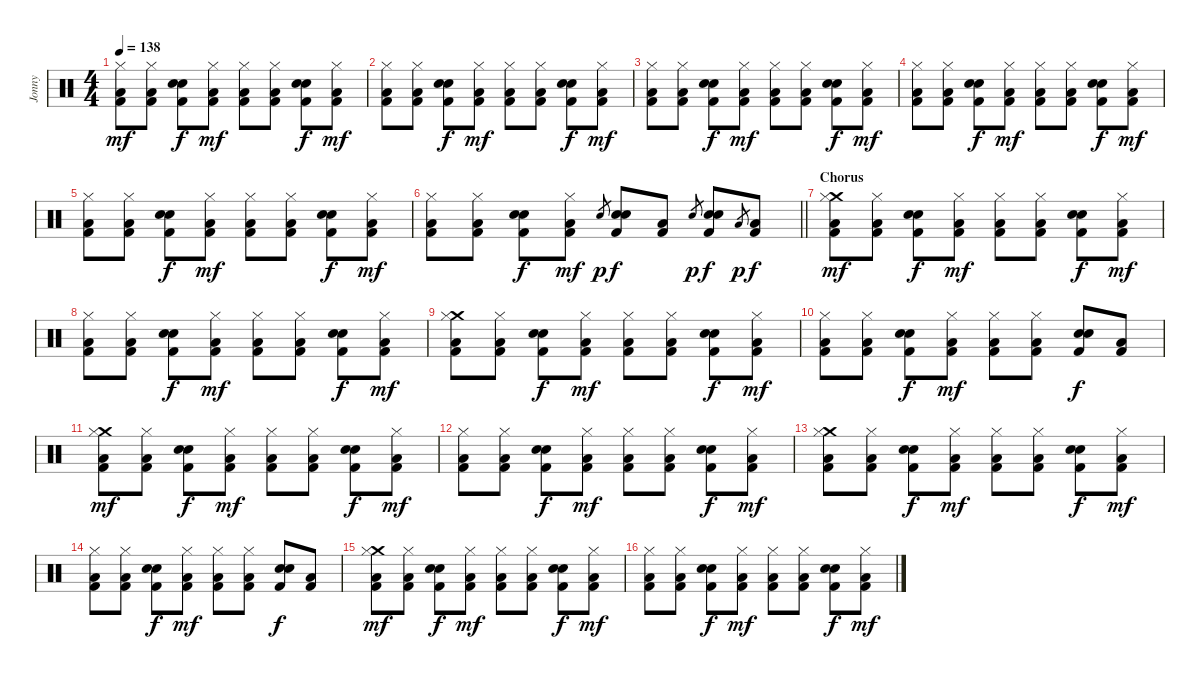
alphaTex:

\track ("Jonny" "Jonny") {instrument percussion}
\staff {score}
\articulation defaults
\ts (4 4)
\tempo 138
\clef neutral
\ks c
("Hi-Hat (closed)" "Low Floor Tom (hit)" "Kick (hit) 2").8{dy mf} ("Hi-Hat (closed)" "Low Floor Tom (hit)" "Kick (hit) 2").8 ("Electric Snare (hit)" "Electric Snare (hit)" "Kick (hit) 2").8{dy f} ("Hi-Hat (closed)" "Low Floor Tom (hit)" "Kick (hit) 2").8{dy mf} ("Hi-Hat (closed)" "Low Floor Tom (hit)" "Kick (hit) 2").8 ("Hi-Hat (closed)" "Low Floor Tom (hit)" "Kick (hit) 2").8 ("Electric Snare (hit)" "Electric Snare (hit)" "Kick (hit) 2").8{dy f} ("Hi-Hat (closed)" "Low Floor Tom (hit)" "Kick (hit) 2").8{dy mf} |
("Hi-Hat (closed)" "Low Floor Tom (hit)" "Kick (hit) 2").8 ("Hi-Hat (closed)" "Low Floor Tom (hit)" "Kick (hit) 2").8 ("Electric Snare (hit)" "Electric Snare (hit)" "Kick (hit) 2").8{dy f} ("Hi-Hat (closed)" "Low Floor Tom (hit)" "Kick (hit) 2").8{dy mf} ("Hi-Hat (closed)" "Low Floor Tom (hit)" "Kick (hit) 2").8 ("Hi-Hat (closed)" "Low Floor Tom (hit)" "Kick (hit) 2").8 ("Electric Snare (hit)" "Electric Snare (hit)" "Kick (hit) 2").8{dy f} ("Hi-Hat (closed)" "Low Floor Tom (hit)" "Kick (hit) 2").8{dy mf} |
("Hi-Hat (closed)" "Low Floor Tom (hit)" "Kick (hit) 2").8 ("Hi-Hat (closed)" "Low Floor Tom (hit)" "Kick (hit) 2").8 ("Electric Snare (hit)" "Electric Snare (hit)" "Kick (hit) 2").8{dy f} ("Hi-Hat (closed)" "Low Floor Tom (hit)" "Kick (hit) 2").8{dy mf} ("Hi-Hat (closed)" "Low Floor Tom (hit)" "Kick (hit) 2").8 ("Hi-Hat (closed)" "Low Floor Tom (hit)" "Kick (hit) 2").8 ("Electric Snare (hit)" "Electric Snare (hit)" "Kick (hit) 2").8{dy f} ("Hi-Hat (closed)" "Low Floor Tom (hit)" "Kick (hit) 2").8{dy mf} |
("Hi-Hat (closed)" "Low Floor Tom (hit)" "Kick (hit) 2").8 ("Hi-Hat (closed)" "Low Floor Tom (hit)" "Kick (hit) 2").8 ("Electric Snare (hit)" "Electric Snare (hit)" "Kick (hit) 2").8{dy f} ("Hi-Hat (closed)" "Low Floor Tom (hit)" "Kick (hit) 2").8{dy mf} ("Hi-Hat (closed)" "Low Floor Tom (hit)" "Kick (hit) 2").8 ("Hi-Hat (closed)" "Low Floor Tom (hit)" "Kick (hit) 2").8 ("Electric Snare (hit)" "Electric Snare (hit)" "Kick (hit) 2").8{dy f} ("Hi-Hat (closed)" "Low Floor Tom (hit)" "Kick (hit) 2").8{dy mf} |
("Hi-Hat (closed)" "Low Floor Tom (hit)" "Kick (hit) 2").8 ("Hi-Hat (closed)" "Low Floor Tom (hit)" "Kick (hit) 2").8 ("Electric Snare (hit)" "Electric Snare (hit)" "Kick (hit) 2").8{dy f} ("Hi-Hat (closed)" "Low Floor Tom (hit)" "Kick (hit) 2").8{dy mf} ("Hi-Hat (closed)" "Low Floor Tom (hit)" "Kick (hit) 2").8 ("Hi-Hat (closed)" "Low Floor Tom (hit)" "Kick (hit) 2").8 ("Electric Snare (hit)" "Electric Snare (hit)" "Kick (hit) 2").8{dy f} ("Hi-Hat (closed)" "Low Floor Tom (hit)" "Kick (hit) 2").8{dy mf} |
\barLineRight lightlight
("Hi-Hat (closed)" "Low Floor Tom (hit)" "Kick (hit) 2").8 ("Hi-Hat (closed)" "Low Floor Tom (hit)" "Kick (hit) 2").8 ("Electric Snare (hit)" "Electric Snare (hit)" "Kick (hit) 2").8{dy f} ("Hi-Hat (closed)" "Low Floor Tom (hit)" "Kick (hit) 2").8{dy mf} "Electric Snare (hit)".8{gr dy p} ("Electric Snare (hit)" "Electric Snare (hit)" "Kick (hit) 2").8{dy f} ("Low Floor Tom (hit)" "Kick (hit) 2").8 "Electric Snare (hit)".8{gr dy p} ("Electric Snare (hit)" "Electric Snare (hit)" "Kick (hit) 2").8{dy f} "Low Floor Tom (hit)".8{gr dy p} ("Low Floor Tom (hit)" "Kick (hit) 2").8{dy f} |
\section ("" "Chorus")
("Crash medium (hit)" "Hi-Hat (closed)" "Low Floor Tom (hit)" "Kick (hit) 2").8{dy mf} ("Hi-Hat (closed)" "Low Floor Tom (hit)" "Kick (hit) 2").8 ("Electric Snare (hit)" "Electric Snare (hit)" "Kick (hit) 2").8{dy f} ("Hi-Hat (closed)" "Low Floor Tom (hit)" "Kick (hit) 2").8{dy mf} ("Hi-Hat (closed)" "Low Floor Tom (hit)" "Kick (hit) 2").8 ("Hi-Hat (closed)" "Low Floor Tom (hit)" "Kick (hit) 2").8 ("Electric Snare (hit)" "Electric Snare (hit)" "Kick (hit) 2").8{dy f} ("Hi-Hat (closed)" "Low Floor Tom (hit)" "Kick (hit) 2").8{dy mf} |
("Hi-Hat (closed)" "Low Floor Tom (hit)" "Kick (hit) 2").8 ("Hi-Hat (closed)" "Low Floor Tom (hit)" "Kick (hit) 2").8 ("Electric Snare (hit)" "Electric Snare (hit)" "Kick (hit) 2").8{dy f} ("Hi-Hat (closed)" "Low Floor Tom (hit)" "Kick (hit) 2").8{dy mf} ("Hi-Hat (closed)" "Low Floor Tom (hit)" "Kick (hit) 2").8 ("Hi-Hat (closed)" "Low Floor Tom (hit)" "Kick (hit) 2").8 ("Electric Snare (hit)" "Electric Snare (hit)" "Kick (hit) 2").8{dy f} ("Hi-Hat (closed)" "Low Floor Tom (hit)" "Kick (hit) 2").8{dy mf} |
("Crash medium (hit)" "Hi-Hat (closed)" "Low Floor Tom (hit)" "Kick (hit) 2").8 ("Hi-Hat (closed)" "Low Floor Tom (hit)" "Kick (hit) 2").8 ("Electric Snare (hit)" "Electric Snare (hit)" "Kick (hit) 2").8{dy f} ("Hi-Hat (closed)" "Low Floor Tom (hit)" "Kick (hit) 2").8{dy mf} ("Hi-Hat (closed)" "Low Floor Tom (hit)" "Kick (hit) 2").8 ("Hi-Hat (closed)" "Low Floor Tom (hit)" "Kick (hit) 2").8 ("Electric Snare (hit)" "Electric Snare (hit)" "Kick (hit) 2").8{dy f} ("Hi-Hat (closed)" "Low Floor Tom (hit)" "Kick (hit) 2").8{dy mf} |
("Hi-Hat (closed)" "Low Floor Tom (hit)" "Kick (hit) 2").8 ("Hi-Hat (closed)" "Low Floor Tom (hit)" "Kick (hit) 2").8 ("Electric Snare (hit)" "Electric Snare (hit)" "Kick (hit) 2").8{dy f} ("Hi-Hat (closed)" "Low Floor Tom (hit)" "Kick (hit) 2").8{dy mf} ("Hi-Hat (closed)" "Low Floor Tom (hit)" "Kick (hit) 2").8 ("Hi-Hat (closed)" "Low Floor Tom (hit)" "Kick (hit) 2").8 ("Electric Snare (hit)" "Electric Snare (hit)" "Kick (hit) 2").8{dy f} ("Low Floor Tom (hit)" "Kick (hit) 2").8 |
("Crash medium (hit)" "Hi-Hat (closed)" "Low Floor Tom (hit)" "Kick (hit) 2").8{dy mf} ("Hi-Hat (closed)" "Low Floor Tom (hit)" "Kick (hit) 2").8 ("Electric Snare (hit)" "Electric Snare (hit)" "Kick (hit) 2").8{dy f} ("Hi-Hat (closed)" "Low Floor Tom (hit)" "Kick (hit) 2").8{dy mf} ("Hi-Hat (closed)" "Low Floor Tom (hit)" "Kick (hit) 2").8 ("Hi-Hat (closed)" "Low Floor Tom (hit)" "Kick (hit) 2").8 ("Electric Snare (hit)" "Electric Snare (hit)" "Kick (hit) 2").8{dy f} ("Hi-Hat (closed)" "Low Floor Tom (hit)" "Kick (hit) 2").8{dy mf} |
("Hi-Hat (closed)" "Low Floor Tom (hit)" "Kick (hit) 2").8 ("Hi-Hat (closed)" "Low Floor Tom (hit)" "Kick (hit) 2").8 ("Electric Snare (hit)" "Electric Snare (hit)" "Kick (hit) 2").8{dy f} ("Hi-Hat (closed)" "Low Floor Tom (hit)" "Kick (hit) 2").8{dy mf} ("Hi-Hat (closed)" "Low Floor Tom (hit)" "Kick (hit) 2").8 ("Hi-Hat (closed)" "Low Floor Tom (hit)" "Kick (hit) 2").8 ("Electric Snare (hit)" "Electric Snare (hit)" "Kick (hit) 2").8{dy f} ("Hi-Hat (closed)" "Low Floor Tom (hit)" "Kick (hit) 2").8{dy mf} |
("Crash medium (hit)" "Hi-Hat (closed)" "Low Floor Tom (hit)" "Kick (hit) 2").8 ("Hi-Hat (closed)" "Low Floor Tom (hit)" "Kick (hit) 2").8 ("Electric Snare (hit)" "Electric Snare (hit)" "Kick (hit) 2").8{dy f} ("Hi-Hat (closed)" "Low Floor Tom (hit)" "Kick (hit) 2").8{dy mf} ("Hi-Hat (closed)" "Low Floor Tom (hit)" "Kick (hit) 2").8 ("Hi-Hat (closed)" "Low Floor Tom (hit)" "Kick (hit) 2").8 ("Electric Snare (hit)" "Electric Snare (hit)" "Kick (hit) 2").8{dy f} ("Hi-Hat (closed)" "Low Floor Tom (hit)" "Kick (hit) 2").8{dy mf} |
("Hi-Hat (closed)" "Low Floor Tom (hit)" "Kick (hit) 2").8 ("Hi-Hat (closed)" "Low Floor Tom (hit)" "Kick (hit) 2").8 ("Electric Snare (hit)" "Electric Snare (hit)" "Kick (hit) 2").8{dy f} ("Hi-Hat (closed)" "Low Floor Tom (hit)" "Kick (hit) 2").8{dy mf} ("Hi-Hat (closed)" "Low Floor Tom (hit)" "Kick (hit) 2").8 ("Hi-Hat (closed)" "Low Floor Tom (hit)" "Kick (hit) 2").8 ("Electric Snare (hit)" "Electric Snare (hit)" "Kick (hit) 2").8{dy f} ("Low Floor Tom (hit)" "Kick (hit) 2").8 |
("Crash medium (hit)" "Hi-Hat (closed)" "Low Floor Tom (hit)" "Kick (hit) 2").8{dy mf} ("Hi-Hat (closed)" "Low Floor Tom (hit)" "Kick (hit) 2").8 ("Electric Snare (hit)" "Electric Snare (hit)" "Kick (hit) 2").8{dy f} ("Hi-Hat (closed)" "Low Floor Tom (hit)" "Kick (hit) 2").8{dy mf} ("Hi-Hat (closed)" "Low Floor Tom (hit)" "Kick (hit) 2").8 ("Hi-Hat (closed)" "Low Floor Tom (hit)" "Kick (hit) 2").8 ("Electric Snare (hit)" "Electric Snare (hit)" "Kick (hit) 2").8{dy f} ("Hi-Hat (closed)" "Low Floor Tom (hit)" "Kick (hit) 2").8{dy mf} |
("Hi-Hat (closed)" "Low Floor Tom (hit)" "Kick (hit) 2").8 ("Hi-Hat (closed)" "Low Floor Tom (hit)" "Kick (hit) 2").8 ("Electric Snare (hit)" "Electric Snare (hit)" "Kick (hit) 2").8{dy f} ("Hi-Hat (closed)" "Low Floor Tom (hit)" "Kick (hit) 2").8{dy mf} ("Hi-Hat (closed)" "Low Floor Tom (hit)" "Kick (hit) 2").8 ("Hi-Hat (closed)" "Low Floor Tom (hit)" "Kick (hit) 2").8 ("Electric Snare (hit)" "Electric Snare (hit)" "Kick (hit) 2").8{dy f} ("Hi-Hat (closed)" "Low Floor Tom (hit)" "Kick (hit) 2").8{dy mf}
